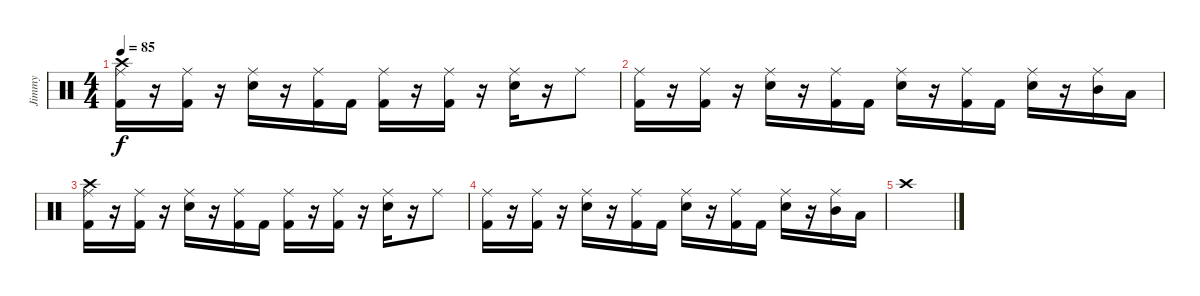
\track ("Jimmy" "Jimmy") {instrument percussion}
\staff {score}
\articulation defaults
\ts (4 4)
\tempo 85
\clef neutral
\ks c
("Ride (middle)" "Crash high (hit)" "Kick (hit) 2").16{dy f} r.16 ("Ride (middle)" "Kick (hit) 2").16 r.16 ("Ride (middle)" "Electric Snare (hit)").16 r.16 ("Ride (middle)" "Kick (hit) 2").16 "Kick (hit) 2".16 ("Ride (middle)" "Kick (hit) 2").16 r.16 ("Ride (middle)" "Kick (hit) 2").16 r.16 ("Ride (middle)" "Electric Snare (hit)").16 r.16 "Ride (middle)".8 |
("Ride (middle)" "Kick (hit) 2").16 r.16 ("Ride (middle)" "Kick (hit) 2").16 r.16 ("Ride (middle)" "Electric Snare (hit)").16 r.16 ("Ride (middle)" "Kick (hit) 2").16 "Kick (hit) 2".16 ("Ride (middle)" "Electric Snare (hit)").16 r.16 ("Ride (middle)" "Kick (hit) 2").16 "Kick (hit) 2".16 ("Ride (middle)" "Electric Snare (hit)").16 r.16 ("Ride (middle)" "Mid Tom (hit)").16 "Low Tom (hit)".16 |
("Ride (middle)" "Crash high (hit)" "Kick (hit) 2").16 r.16 ("Ride (middle)" "Kick (hit) 2").16 r.16 ("Ride (middle)" "Electric Snare (hit)").16 r.16 ("Ride (middle)" "Kick (hit) 2").16 "Kick (hit) 2".16 ("Ride (middle)" "Kick (hit) 2").16 r.16 ("Ride (middle)" "Kick (hit) 2").16 r.16 ("Ride (middle)" "Electric Snare (hit)").16 r.16 "Ride (middle)".8 |
("Ride (middle)" "Kick (hit) 2").16 r.16 ("Ride (middle)" "Kick (hit) 2").16 r.16 ("Ride (middle)" "Electric Snare (hit)").16 r.16 ("Ride (middle)" "Kick (hit) 2").16 "Kick (hit) 2".16 ("Ride (middle)" "Electric Snare (hit)").16 r.16 ("Ride (middle)" "Kick (hit) 2").16 "Kick (hit) 2".16 ("Ride (middle)" "Electric Snare (hit)").16 r.16 ("Ride (middle)" "Mid Tom (hit)").16 "Low Tom (hit)".16 |
"Crash high (hit)".1
